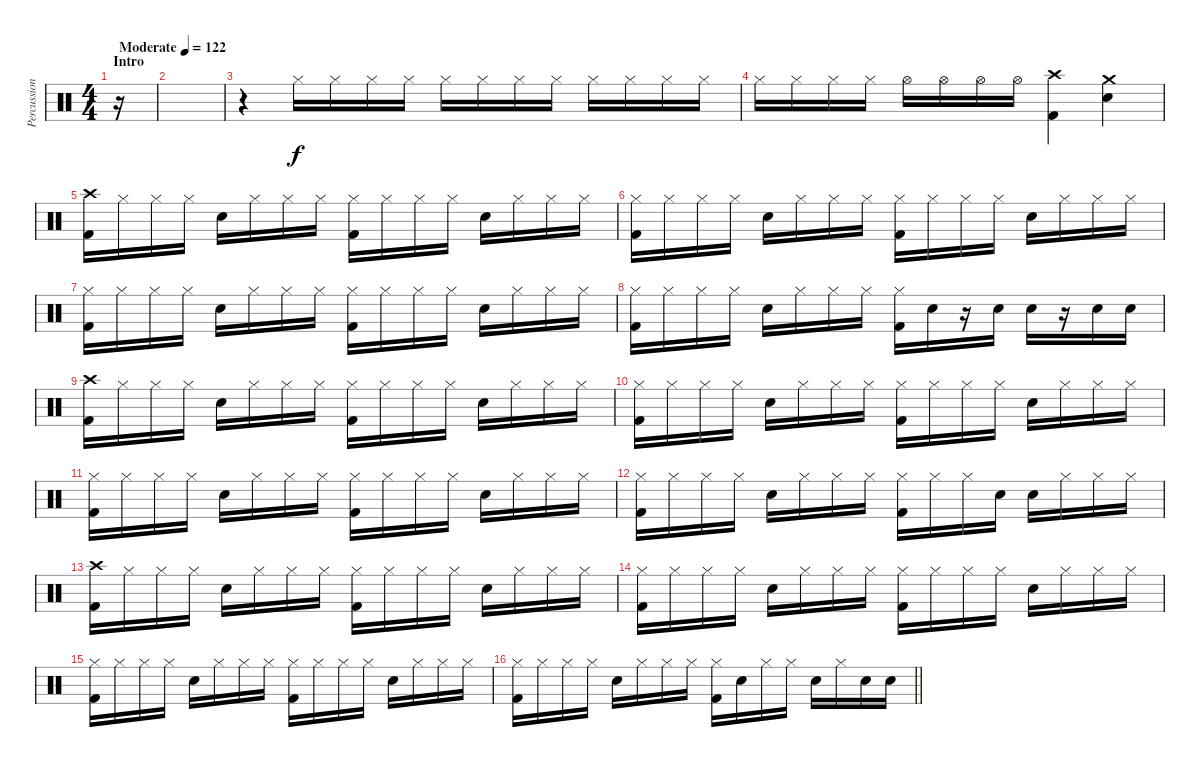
\track ("Percussion" "Percussion") {instrument percussion}
\staff {score}
\articulation defaults
\ts (4 4)
\section ("" "Intro")
\tempo (122 "Moderate")
\clef neutral
\ks c
r.16{dy f} |
|
r.4 "Hi-Hat (closed)".16 "Hi-Hat (closed)".16 "Hi-Hat (closed)".16 "Hi-Hat (closed)".16 "Hi-Hat (closed)".16 "Hi-Hat (closed)".16 "Hi-Hat (closed)".16 "Hi-Hat (closed)".16 "Hi-Hat (closed)".16 "Hi-Hat (closed)".16 "Hi-Hat (closed)".16 "Hi-Hat (closed)".16 |
"Hi-Hat (closed)".16 "Hi-Hat (closed)".16 "Hi-Hat (closed)".16 "Hi-Hat (closed)".16 "Hi-Hat (open)".16 "Hi-Hat (open)".16 "Hi-Hat (open)".16 "Hi-Hat (open)".16 ("Crash high (hit)" "Kick (hit) 2").4 ("Crash medium (hit)" "Electric Snare (hit)").4 |
("Crash high (hit)" "Kick (hit) 2").16 "Hi-Hat (closed)".16 "Hi-Hat (closed)".16 "Hi-Hat (closed)".16 "Electric Snare (hit)".16 "Hi-Hat (closed)".16 "Hi-Hat (closed)".16 "Hi-Hat (closed)".16 ("Hi-Hat (closed)" "Kick (hit) 2").16 "Hi-Hat (closed)".16 "Hi-Hat (closed)".16 "Hi-Hat (closed)".16 "Electric Snare (hit)".16 "Hi-Hat (closed)".16 "Hi-Hat (closed)".16 "Hi-Hat (closed)".16 |
("Hi-Hat (closed)" "Kick (hit) 2").16 "Hi-Hat (closed)".16 "Hi-Hat (closed)".16 "Hi-Hat (closed)".16 "Electric Snare (hit)".16 "Hi-Hat (closed)".16 "Hi-Hat (closed)".16 "Hi-Hat (closed)".16 ("Hi-Hat (closed)" "Kick (hit) 2").16 "Hi-Hat (closed)".16 "Hi-Hat (closed)".16 "Hi-Hat (closed)".16 "Electric Snare (hit)".16 "Hi-Hat (closed)".16 "Hi-Hat (closed)".16 "Hi-Hat (closed)".16 |
("Hi-Hat (closed)" "Kick (hit) 2").16 "Hi-Hat (closed)".16 "Hi-Hat (closed)".16 "Hi-Hat (closed)".16 "Electric Snare (hit)".16 "Hi-Hat (closed)".16 "Hi-Hat (closed)".16 "Hi-Hat (closed)".16 ("Hi-Hat (closed)" "Kick (hit) 2").16 "Hi-Hat (closed)".16 "Hi-Hat (closed)".16 "Hi-Hat (closed)".16 "Electric Snare (hit)".16 "Hi-Hat (closed)".16 "Hi-Hat (closed)".16 "Hi-Hat (closed)".16 |
("Hi-Hat (closed)" "Kick (hit) 2").16 "Hi-Hat (closed)".16 "Hi-Hat (closed)".16 "Hi-Hat (closed)".16 "Electric Snare (hit)".16 "Hi-Hat (closed)".16 "Hi-Hat (closed)".16 "Hi-Hat (closed)".16 ("Hi-Hat (closed)" "Kick (hit) 2").16 "Electric Snare (hit)".16 r.16 "Electric Snare (hit)".16 "Electric Snare (hit)".16 r.16 "Electric Snare (hit)".16 "Electric Snare (hit)".16 |
("Crash high (hit)" "Kick (hit) 2").16 "Hi-Hat (closed)".16 "Hi-Hat (closed)".16 "Hi-Hat (closed)".16 "Electric Snare (hit)".16 "Hi-Hat (closed)".16 "Hi-Hat (closed)".16 "Hi-Hat (closed)".16 ("Hi-Hat (closed)" "Kick (hit) 2").16 "Hi-Hat (closed)".16 "Hi-Hat (closed)".16 "Hi-Hat (closed)".16 "Electric Snare (hit)".16 "Hi-Hat (closed)".16 "Hi-Hat (closed)".16 "Hi-Hat (closed)".16 |
("Hi-Hat (closed)" "Kick (hit) 2").16 "Hi-Hat (closed)".16 "Hi-Hat (closed)".16 "Hi-Hat (closed)".16 "Electric Snare (hit)".16 "Hi-Hat (closed)".16 "Hi-Hat (closed)".16 "Hi-Hat (closed)".16 ("Hi-Hat (closed)" "Kick (hit) 2").16 "Hi-Hat (closed)".16 "Hi-Hat (closed)".16 "Hi-Hat (closed)".16 "Electric Snare (hit)".16 "Hi-Hat (closed)".16 "Hi-Hat (closed)".16 "Hi-Hat (closed)".16 |
("Hi-Hat (closed)" "Kick (hit) 2").16 "Hi-Hat (closed)".16 "Hi-Hat (closed)".16 "Hi-Hat (closed)".16 "Electric Snare (hit)".16 "Hi-Hat (closed)".16 "Hi-Hat (closed)".16 "Hi-Hat (closed)".16 ("Hi-Hat (closed)" "Kick (hit) 2").16 "Hi-Hat (closed)".16 "Hi-Hat (closed)".16 "Hi-Hat (closed)".16 "Electric Snare (hit)".16 "Hi-Hat (closed)".16 "Hi-Hat (closed)".16 "Hi-Hat (closed)".16 |
("Hi-Hat (closed)" "Kick (hit) 2").16 "Hi-Hat (closed)".16 "Hi-Hat (closed)".16 "Hi-Hat (closed)".16 "Electric Snare (hit)".16 "Hi-Hat (closed)".16 "Hi-Hat (closed)".16 "Hi-Hat (closed)".16 ("Hi-Hat (closed)" "Kick (hit) 2").16 "Hi-Hat (closed)".16 "Hi-Hat (closed)".16 "Electric Snare (hit)".16 "Electric Snare (hit)".16 "Hi-Hat (closed)".16 "Hi-Hat (closed)".16 "Hi-Hat (closed)".16 |
("Crash high (hit)" "Kick (hit) 2").16 "Hi-Hat (closed)".16 "Hi-Hat (closed)".16 "Hi-Hat (closed)".16 "Electric Snare (hit)".16 "Hi-Hat (closed)".16 "Hi-Hat (closed)".16 "Hi-Hat (closed)".16 ("Hi-Hat (closed)" "Kick (hit) 2").16 "Hi-Hat (closed)".16 "Hi-Hat (closed)".16 "Hi-Hat (closed)".16 "Electric Snare (hit)".16 "Hi-Hat (closed)".16 "Hi-Hat (closed)".16 "Hi-Hat (closed)".16 |
("Hi-Hat (closed)" "Kick (hit) 2").16 "Hi-Hat (closed)".16 "Hi-Hat (closed)".16 "Hi-Hat (closed)".16 "Electric Snare (hit)".16 "Hi-Hat (closed)".16 "Hi-Hat (closed)".16 "Hi-Hat (closed)".16 ("Hi-Hat (closed)" "Kick (hit) 2").16 "Hi-Hat (closed)".16 "Hi-Hat (closed)".16 "Hi-Hat (closed)".16 "Electric Snare (hit)".16 "Hi-Hat (closed)".16 "Hi-Hat (closed)".16 "Hi-Hat (closed)".16 |
("Hi-Hat (closed)" "Kick (hit) 2").16 "Hi-Hat (closed)".16 "Hi-Hat (closed)".16 "Hi-Hat (closed)".16 "Electric Snare (hit)".16 "Hi-Hat (closed)".16 "Hi-Hat (closed)".16 "Hi-Hat (closed)".16 ("Hi-Hat (closed)" "Kick (hit) 2").16 "Hi-Hat (closed)".16 "Hi-Hat (closed)".16 "Hi-Hat (closed)".16 "Electric Snare (hit)".16 "Hi-Hat (closed)".16 "Hi-Hat (closed)".16 "Hi-Hat (closed)".16 |
\barLineRight lightlight
("Hi-Hat (closed)" "Kick (hit) 2").16 "Hi-Hat (closed)".16 "Hi-Hat (closed)".16 "Hi-Hat (closed)".16 "Electric Snare (hit)".16 "Hi-Hat (closed)".16 "Hi-Hat (closed)".16 "Hi-Hat (closed)".16 ("Hi-Hat (closed)" "Kick (hit) 2").16 "Electric Snare (hit)".16 "Hi-Hat (closed)".16 "Hi-Hat (closed)".16 "Electric Snare (hit)".16 "Hi-Hat (closed)".16 "Electric Snare (hit)".16 "Electric Snare (hit)".16
